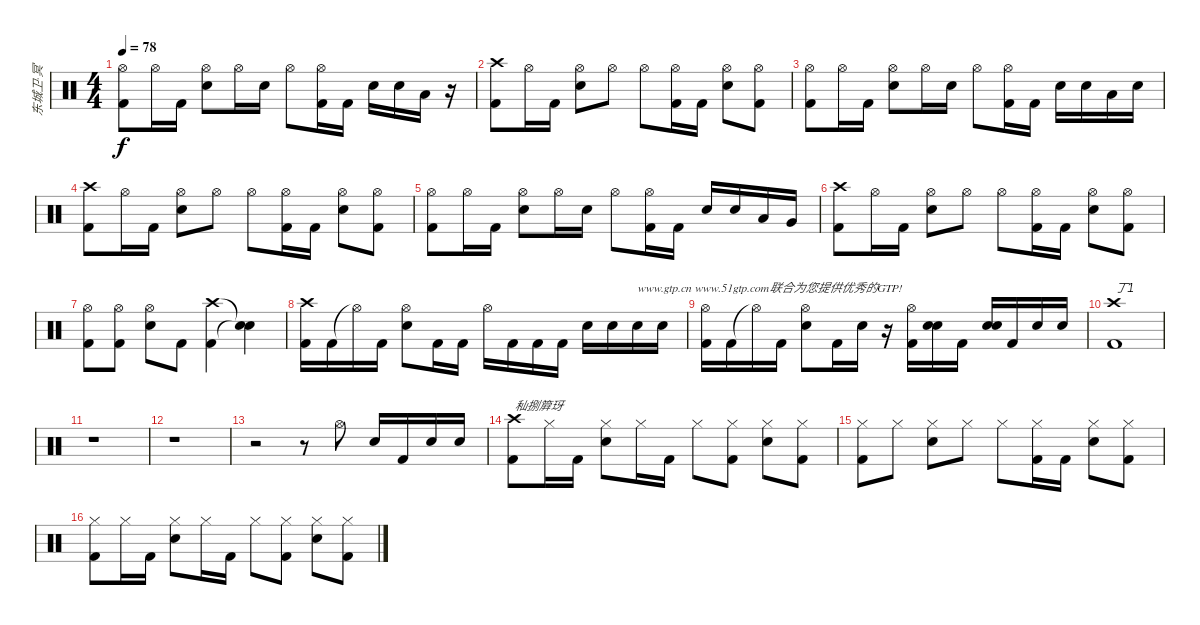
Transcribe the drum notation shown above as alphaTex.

\track ("东城卫·冥" "东城卫·冥") {instrument percussion}
\staff {score}
\articulation defaults
\ts (4 4)
\tempo 78
\clef neutral
\ks c
("Hi-Hat (open)" "Kick (hit) 2").8{dy f} "Hi-Hat (open)".16 "Kick (hit) 2".16 ("Hi-Hat (open)" "Electric Snare (hit)").8 "Hi-Hat (open)".16 "Electric Snare (hit)".16 "Hi-Hat (open)".8 ("Hi-Hat (open)" "Kick (hit) 2").16 "Kick (hit) 2".16 "Electric Snare (hit)".16 "Electric Snare (hit)".16 "Low Tom (hit)".16 r.16 |
("Crash high (hit)" "Kick (hit) 2").8 "Hi-Hat (open)".16 "Kick (hit) 2".16 ("Hi-Hat (open)" "Electric Snare (hit)").8 "Hi-Hat (open)".8 "Hi-Hat (open)".8 ("Hi-Hat (open)" "Kick (hit) 2").16 "Kick (hit) 2".16 ("Hi-Hat (open)" "Electric Snare (hit)").8 ("Hi-Hat (open)" "Kick (hit) 2").8 |
("Hi-Hat (open)" "Kick (hit) 2").8 "Hi-Hat (open)".16 "Kick (hit) 2".16 ("Hi-Hat (open)" "Electric Snare (hit)").8 "Hi-Hat (open)".16 "Electric Snare (hit)".16 "Hi-Hat (open)".8 ("Hi-Hat (open)" "Kick (hit) 2").16 "Kick (hit) 2".16 "Electric Snare (hit)".16 "Electric Snare (hit)".16 "Low Tom (hit)".16 "Electric Snare (hit)".16 |
("Crash high (hit)" "Kick (hit) 2").8 "Hi-Hat (open)".16 "Kick (hit) 2".16 ("Hi-Hat (open)" "Electric Snare (hit)").8 "Hi-Hat (open)".8 "Hi-Hat (open)".8 ("Hi-Hat (open)" "Kick (hit) 2").16 "Kick (hit) 2".16 ("Hi-Hat (open)" "Electric Snare (hit)").8 ("Hi-Hat (open)" "Kick (hit) 2").8 |
("Hi-Hat (open)" "Kick (hit) 2").8 "Hi-Hat (open)".16 "Kick (hit) 2".16 ("Hi-Hat (open)" "Electric Snare (hit)").8 "Hi-Hat (open)".16 "Electric Snare (hit)".16 "Hi-Hat (open)".8 ("Hi-Hat (open)" "Kick (hit) 2").16 "Kick (hit) 2".16 "Electric Snare (hit)".16 "Electric Snare (hit)".16 "Low Tom (hit)".16 "Very Low Tom (hit)".16 |
("Crash high (hit)" "Kick (hit) 2").8 "Hi-Hat (open)".16 "Kick (hit) 2".16 ("Hi-Hat (open)" "Electric Snare (hit)").8 "Hi-Hat (open)".8 "Hi-Hat (open)".8 ("Hi-Hat (open)" "Kick (hit) 2").16 "Kick (hit) 2".16 ("Hi-Hat (open)" "Electric Snare (hit)").8 ("Hi-Hat (open)" "Kick (hit) 2").8 |
("Hi-Hat (open)" "Kick (hit) 2").8 ("Hi-Hat (open)" "Kick (hit) 2").8 ("Hi-Hat (open)" "Electric Snare (hit)").8 "Kick (hit) 2".8 ("Crash high (hit)" "Kick (hit) 2").4 ("Snare (hit)"{t} "Snare (hit)"{t}).4 |
("Crash high (hit)" "Kick (hit) 2").16 "Kick (hit) 2".16 "Hi-Hat (open)"{t}.16 "Kick (hit) 2".16 ("Hi-Hat (open)" "Electric Snare (hit)").8 "Kick (hit) 2".16 "Kick (hit) 2".16 "Hi-Hat (open)".16 "Kick (hit) 2".16 "Kick (hit) 2".16 "Kick (hit) 2".16 "Electric Snare (hit)".16 "Electric Snare (hit)".16 "Electric Snare (hit)".16{txt "www.gtp.cn www.51gtp.com联合为您提供优秀的GTP!"} "Electric Snare (hit)".16 |
("Hi-Hat (open)" "Kick (hit) 2").16 "Kick (hit) 2".16 "Hi-Hat (open)"{t}.16 "Kick (hit) 2".16 ("Hi-Hat (open)" "Electric Snare (hit)").8 "Kick (hit) 2".16 "Electric Snare (hit)".16 r.16 ("Hi-Hat (open)" "Kick (hit) 2").16 ("Electric Snare (hit)" "Electric Snare (hit)").16 "Kick (hit) 2".16 ("Electric Snare (hit)" "Electric Snare (hit)").16 "Kick (hit) 2".16 "Electric Snare (hit)".16 "Electric Snare (hit)".16 |
("Crash high (hit)" "Kick (hit) 2").1{txt "丁"} |
r.1 |
r.1 |
r.2 r.8 "Hi-Hat (open)".8 "Electric Snare (hit)".16 "Kick (hit) 2".16 "Electric Snare (hit)".16 "Electric Snare (hit)".16 |
("Crash high (hit)" "Kick (hit) 2").8{txt "秈捌簈玡"} "Hi-Hat (closed)".16 "Kick (hit) 2".16 ("Hi-Hat (closed)" "Electric Snare (hit)").8 "Hi-Hat (closed)".16 "Kick (hit) 2".16 "Hi-Hat (closed)".8 ("Hi-Hat (closed)" "Kick (hit) 2").8 ("Hi-Hat (closed)" "Electric Snare (hit)").8 ("Hi-Hat (closed)" "Kick (hit) 2").8 |
("Hi-Hat (closed)" "Kick (hit) 2").8 "Hi-Hat (closed)".8 ("Hi-Hat (closed)" "Electric Snare (hit)").8 "Hi-Hat (closed)".8 "Hi-Hat (closed)".8 ("Hi-Hat (closed)" "Kick (hit) 2").16 "Kick (hit) 2".16 ("Hi-Hat (closed)" "Electric Snare (hit)").8 ("Hi-Hat (closed)" "Kick (hit) 2").8 |
("Hi-Hat (closed)" "Kick (hit) 2").8 "Hi-Hat (closed)".16 "Kick (hit) 2".16 ("Hi-Hat (closed)" "Electric Snare (hit)").8 "Hi-Hat (closed)".16 "Kick (hit) 2".16 "Hi-Hat (closed)".8 ("Hi-Hat (closed)" "Kick (hit) 2").8 ("Hi-Hat (closed)" "Electric Snare (hit)").8 ("Hi-Hat (closed)" "Kick (hit) 2").8
